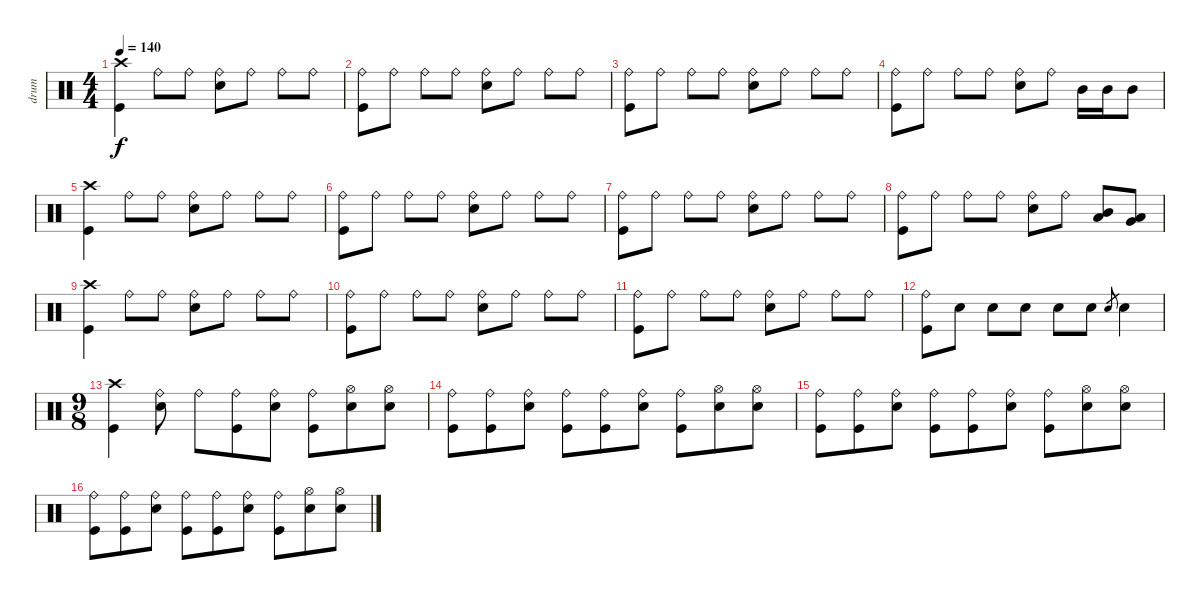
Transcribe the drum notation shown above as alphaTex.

\track ("drum" "drum") {instrument percussion}
\staff {score}
\articulation defaults
\ts (4 4)
\tempo 140
\clef neutral
\ks c
("Kick (hit)" "Crash high (hit)").4{dy f} "Ride (bell)".8 "Ride (bell)".8 ("Electric Snare (hit)" "Ride (bell)").8 "Ride (bell)".8 "Ride (bell)".8 "Ride (bell)".8 |
("Kick (hit)" "Ride (bell)").8 "Ride (bell)".8 "Ride (bell)".8 "Ride (bell)".8 ("Electric Snare (hit)" "Ride (bell)").8 "Ride (bell)".8 "Ride (bell)".8 "Ride (bell)".8 |
("Kick (hit)" "Ride (bell)").8 "Ride (bell)".8 "Ride (bell)".8 "Ride (bell)".8 ("Electric Snare (hit)" "Ride (bell)").8 "Ride (bell)".8 "Ride (bell)".8 "Ride (bell)".8 |
("Kick (hit)" "Ride (bell)").8 "Ride (bell)".8 "Ride (bell)".8 "Ride (bell)".8 ("Electric Snare (hit)" "Ride (bell)").8 "Ride (bell)".8 "Mid Tom (hit)".16 "Mid Tom (hit)".16 "Mid Tom (hit)".8 |
("Kick (hit)" "Crash high (hit)").4 "Ride (bell)".8 "Ride (bell)".8 ("Electric Snare (hit)" "Ride (bell)").8 "Ride (bell)".8 "Ride (bell)".8 "Ride (bell)".8 |
("Kick (hit)" "Ride (bell)").8 "Ride (bell)".8 "Ride (bell)".8 "Ride (bell)".8 ("Electric Snare (hit)" "Ride (bell)").8 "Ride (bell)".8 "Ride (bell)".8 "Ride (bell)".8 |
("Kick (hit)" "Ride (bell)").8 "Ride (bell)".8 "Ride (bell)".8 "Ride (bell)".8 ("Electric Snare (hit)" "Ride (bell)").8 "Ride (bell)".8 "Ride (bell)".8 "Ride (bell)".8 |
("Kick (hit)" "Ride (bell)").8 "Ride (bell)".8 "Ride (bell)".8 "Ride (bell)".8 ("Electric Snare (hit)" "Ride (bell)").8 "Ride (bell)".8 ("Mid Tom (hit)" "Low Tom (hit)").8 ("Low Tom (hit)" "Very Low Tom (hit)").8 |
("Kick (hit)" "Crash high (hit)").4 "Ride (bell)".8 "Ride (bell)".8 ("Electric Snare (hit)" "Ride (bell)").8 "Ride (bell)".8 "Ride (bell)".8 "Ride (bell)".8 |
("Kick (hit)" "Ride (bell)").8 "Ride (bell)".8 "Ride (bell)".8 "Ride (bell)".8 ("Electric Snare (hit)" "Ride (bell)").8 "Ride (bell)".8 "Ride (bell)".8 "Ride (bell)".8 |
("Kick (hit)" "Ride (bell)").8 "Ride (bell)".8 "Ride (bell)".8 "Ride (bell)".8 ("Electric Snare (hit)" "Ride (bell)").8 "Ride (bell)".8 "Ride (bell)".8 "Ride (bell)".8 |
("Kick (hit)" "Ride (bell)").8 "Electric Snare (hit)".8 "Electric Snare (hit)".8 "Electric Snare (hit)".8 "Electric Snare (hit)".8 "Electric Snare (hit)".8 "Electric Snare (hit)".8{gr} "Electric Snare (hit)".4 |
\ts (9 8)
("Kick (hit)" "Crash high (hit)").4 ("Electric Snare (hit)" "Ride (bell)").8 "Ride (bell)".8 ("Kick (hit)" "Ride (bell)").8 ("Electric Snare (hit)" "Ride (bell)").8 ("Kick (hit)" "Ride (bell)").8 ("Electric Snare (hit)" "Hi-Hat (open)").8 ("Electric Snare (hit)" "Hi-Hat (open)").8 |
("Kick (hit)" "Ride (bell)").8 ("Kick (hit)" "Ride (bell)").8 ("Electric Snare (hit)" "Ride (bell)").8 ("Kick (hit)" "Ride (bell)").8 ("Kick (hit)" "Ride (bell)").8 ("Electric Snare (hit)" "Ride (bell)").8 ("Kick (hit)" "Ride (bell)").8 ("Electric Snare (hit)" "Hi-Hat (open)").8 ("Electric Snare (hit)" "Hi-Hat (open)").8 |
("Kick (hit)" "Ride (bell)").8 ("Kick (hit)" "Ride (bell)").8 ("Electric Snare (hit)" "Ride (bell)").8 ("Kick (hit)" "Ride (bell)").8 ("Kick (hit)" "Ride (bell)").8 ("Electric Snare (hit)" "Ride (bell)").8 ("Kick (hit)" "Ride (bell)").8 ("Electric Snare (hit)" "Hi-Hat (open)").8 ("Electric Snare (hit)" "Hi-Hat (open)").8 |
("Kick (hit)" "Ride (bell)").8 ("Kick (hit)" "Ride (bell)").8 ("Electric Snare (hit)" "Ride (bell)").8 ("Kick (hit)" "Ride (bell)").8 ("Kick (hit)" "Ride (bell)").8 ("Electric Snare (hit)" "Ride (bell)").8 ("Kick (hit)" "Ride (bell)").8 ("Electric Snare (hit)" "Hi-Hat (open)").8 ("Electric Snare (hit)" "Hi-Hat (open)").8
